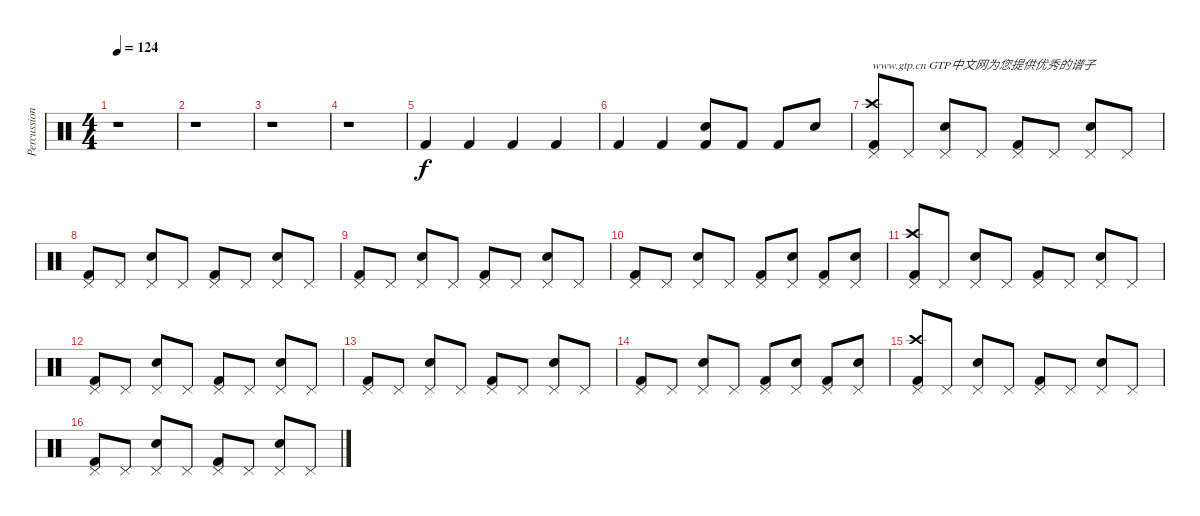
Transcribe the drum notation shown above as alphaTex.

\track ("Percussion" "Percussion") {instrument percussion}
\staff {score}
\articulation defaults
\ts (4 4)
\tempo 124
\clef neutral
\ks c
r.1{dy f} |
r.1 |
r.1 |
r.1 |
"Kick (hit) 2".4 "Kick (hit) 2".4 "Kick (hit) 2".4 "Kick (hit) 2".4 |
"Kick (hit) 2".4 "Kick (hit) 2".4 ("Electric Snare (hit)" "Kick (hit) 2").8 "Kick (hit) 2".8 "Kick (hit) 2".8 "Electric Snare (hit)".8 |
("Crash high (hit)" "Pedal Hi-Hat (hit)" "Kick (hit) 2").8{txt "www.gtp.cn GTP中文网为您提供优秀的谱子"} "Pedal Hi-Hat (hit)".8 ("Pedal Hi-Hat (hit)" "Electric Snare (hit)").8 "Pedal Hi-Hat (hit)".8 ("Pedal Hi-Hat (hit)" "Kick (hit) 2").8 "Pedal Hi-Hat (hit)".8 ("Pedal Hi-Hat (hit)" "Electric Snare (hit)").8 "Pedal Hi-Hat (hit)".8 |
("Pedal Hi-Hat (hit)" "Kick (hit) 2").8 "Pedal Hi-Hat (hit)".8 ("Pedal Hi-Hat (hit)" "Electric Snare (hit)").8 "Pedal Hi-Hat (hit)".8 ("Pedal Hi-Hat (hit)" "Kick (hit) 2").8 "Pedal Hi-Hat (hit)".8 ("Pedal Hi-Hat (hit)" "Electric Snare (hit)").8 "Pedal Hi-Hat (hit)".8 |
("Pedal Hi-Hat (hit)" "Kick (hit) 2").8 "Pedal Hi-Hat (hit)".8 ("Pedal Hi-Hat (hit)" "Electric Snare (hit)").8 "Pedal Hi-Hat (hit)".8 ("Pedal Hi-Hat (hit)" "Kick (hit) 2").8 "Pedal Hi-Hat (hit)".8 ("Pedal Hi-Hat (hit)" "Electric Snare (hit)").8 "Pedal Hi-Hat (hit)".8 |
("Pedal Hi-Hat (hit)" "Kick (hit) 2").8 "Pedal Hi-Hat (hit)".8 ("Pedal Hi-Hat (hit)" "Electric Snare (hit)").8 "Pedal Hi-Hat (hit)".8 ("Pedal Hi-Hat (hit)" "Kick (hit) 2").8 ("Pedal Hi-Hat (hit)" "Electric Snare (hit)").8 ("Pedal Hi-Hat (hit)" "Kick (hit) 2").8 ("Pedal Hi-Hat (hit)" "Electric Snare (hit)").8 |
("Crash high (hit)" "Pedal Hi-Hat (hit)" "Kick (hit) 2").8 "Pedal Hi-Hat (hit)".8 ("Pedal Hi-Hat (hit)" "Electric Snare (hit)").8 "Pedal Hi-Hat (hit)".8 ("Pedal Hi-Hat (hit)" "Kick (hit) 2").8 "Pedal Hi-Hat (hit)".8 ("Pedal Hi-Hat (hit)" "Electric Snare (hit)").8 "Pedal Hi-Hat (hit)".8 |
("Pedal Hi-Hat (hit)" "Kick (hit) 2").8 "Pedal Hi-Hat (hit)".8 ("Pedal Hi-Hat (hit)" "Electric Snare (hit)").8 "Pedal Hi-Hat (hit)".8 ("Pedal Hi-Hat (hit)" "Kick (hit) 2").8 "Pedal Hi-Hat (hit)".8 ("Pedal Hi-Hat (hit)" "Electric Snare (hit)").8 "Pedal Hi-Hat (hit)".8 |
("Pedal Hi-Hat (hit)" "Kick (hit) 2").8 "Pedal Hi-Hat (hit)".8 ("Pedal Hi-Hat (hit)" "Electric Snare (hit)").8 "Pedal Hi-Hat (hit)".8 ("Pedal Hi-Hat (hit)" "Kick (hit) 2").8 "Pedal Hi-Hat (hit)".8 ("Pedal Hi-Hat (hit)" "Electric Snare (hit)").8 "Pedal Hi-Hat (hit)".8 |
("Pedal Hi-Hat (hit)" "Kick (hit) 2").8 "Pedal Hi-Hat (hit)".8 ("Pedal Hi-Hat (hit)" "Electric Snare (hit)").8 "Pedal Hi-Hat (hit)".8 ("Pedal Hi-Hat (hit)" "Kick (hit) 2").8 ("Pedal Hi-Hat (hit)" "Electric Snare (hit)").8 ("Pedal Hi-Hat (hit)" "Kick (hit) 2").8 ("Pedal Hi-Hat (hit)" "Electric Snare (hit)").8 |
("Crash high (hit)" "Pedal Hi-Hat (hit)" "Kick (hit) 2").8 "Pedal Hi-Hat (hit)".8 ("Pedal Hi-Hat (hit)" "Electric Snare (hit)").8 "Pedal Hi-Hat (hit)".8 ("Pedal Hi-Hat (hit)" "Kick (hit) 2").8 "Pedal Hi-Hat (hit)".8 ("Pedal Hi-Hat (hit)" "Electric Snare (hit)").8 "Pedal Hi-Hat (hit)".8 |
("Pedal Hi-Hat (hit)" "Kick (hit) 2").8 "Pedal Hi-Hat (hit)".8 ("Pedal Hi-Hat (hit)" "Electric Snare (hit)").8 "Pedal Hi-Hat (hit)".8 ("Pedal Hi-Hat (hit)" "Kick (hit) 2").8 "Pedal Hi-Hat (hit)".8 ("Pedal Hi-Hat (hit)" "Electric Snare (hit)").8 "Pedal Hi-Hat (hit)".8
